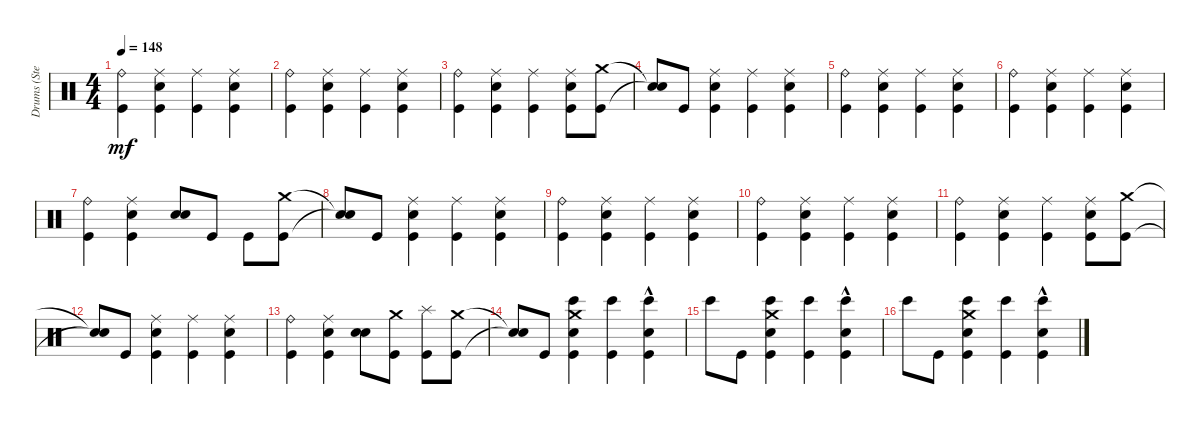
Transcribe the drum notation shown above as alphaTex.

\track ("Drums (Steven)" "Drums (Ste") {instrument percussion}
\staff {score}
\articulation defaults
\ts (4 4)
\tempo 148
\clef neutral
\ks c
("Kick (hit)" "Ride (bell)").4{dy mf} ("Kick (hit)" "Snare (hit) 2" "Ride (middle)").4 ("Kick (hit)" "Ride (middle)").4 ("Kick (hit)" "Snare (hit) 2" "Ride (middle)").4 |
("Kick (hit)" "Ride (bell)").4 ("Kick (hit)" "Snare (hit) 2" "Ride (middle)").4 ("Kick (hit)" "Ride (middle)").4 ("Kick (hit)" "Snare (hit) 2" "Ride (middle)").4 |
("Kick (hit)" "Ride (bell)").4 ("Kick (hit)" "Snare (hit) 2" "Ride (middle)").4 ("Kick (hit)" "Ride (middle)").4 ("Kick (hit)" "Snare (hit) 2" "Ride (middle)").8 ("Kick (hit)" "Crash medium (hit)").8 |
("Snare (hit)"{t} "Snare (hit)"{t}).8 "Kick (hit)".8 ("Kick (hit)" "Snare (hit) 2" "Ride (middle)").4 ("Kick (hit)" "Ride (middle)").4 ("Kick (hit)" "Snare (hit) 2" "Ride (middle)").4 |
("Kick (hit)" "Ride (bell)").4 ("Kick (hit)" "Snare (hit) 2" "Ride (middle)").4 ("Kick (hit)" "Ride (middle)").4 ("Kick (hit)" "Snare (hit) 2" "Ride (middle)").4 |
("Kick (hit)" "Ride (bell)").4 ("Kick (hit)" "Snare (hit) 2" "Ride (middle)").4 ("Kick (hit)" "Ride (middle)").4 ("Kick (hit)" "Snare (hit) 2" "Ride (middle)").4 |
("Kick (hit)" "Ride (bell)").4 ("Kick (hit)" "Snare (hit) 2" "Ride (middle)").4 ("Snare (hit) 2" "Snare (hit) 2").8 "Kick (hit)".8 "Kick (hit)".8 ("Kick (hit)" "Crash medium (hit)").8 |
("Snare (hit)"{t} "Snare (hit)"{t}).8 "Kick (hit)".8 ("Kick (hit)" "Snare (hit) 2" "Ride (middle)").4 ("Kick (hit)" "Ride (middle)").4 ("Kick (hit)" "Snare (hit) 2" "Ride (middle)").4 |
("Kick (hit)" "Ride (bell)").4 ("Kick (hit)" "Snare (hit) 2" "Ride (middle)").4 ("Kick (hit)" "Ride (middle)").4 ("Kick (hit)" "Snare (hit) 2" "Ride (middle)").4 |
("Kick (hit)" "Ride (bell)").4 ("Kick (hit)" "Snare (hit) 2" "Ride (middle)").4 ("Kick (hit)" "Ride (middle)").4 ("Kick (hit)" "Snare (hit) 2" "Ride (middle)").4 |
("Kick (hit)" "Ride (bell)").4 ("Kick (hit)" "Snare (hit) 2" "Ride (middle)").4 ("Kick (hit)" "Ride (middle)").4 ("Kick (hit)" "Snare (hit) 2" "Ride (middle)").8 ("Kick (hit)" "Crash medium (hit)").8 |
("Snare (hit)"{t} "Snare (hit)"{t}).8 "Kick (hit)".8 ("Kick (hit)" "Snare (hit) 2" "Ride (middle)").4 ("Kick (hit)" "Ride (middle)").4 ("Kick (hit)" "Snare (hit) 2" "Ride (middle)").4 |
("Kick (hit)" "Ride (bell)").4 ("Kick (hit)" "Snare (hit) 2" "Ride (middle)").4 ("Snare (hit) 2" "Snare (hit) 2").8 ("Kick (hit)" "Crash medium (hit)").8 ("Kick (hit)" "Splash (hit)").8 ("Kick (hit)" "Crash medium (hit)").8 |
("Snare (hit)"{t} "Snare (hit)"{t}).8 "Kick (hit)".8 ("Kick (hit)" "Snare (hit) 2" "Crash medium (hit)" "Bongo High (hit)").4 ("Kick (hit)" "Bongo High (hit)").4 ("Kick (hit)"{hac} "Snare (hit) 2" "Bongo High (hit)").4 |
"Bongo High (hit)".8 "Kick (hit)".8 ("Kick (hit)" "Snare (hit) 2" "Crash medium (hit)" "Bongo High (hit)").4 ("Kick (hit)" "Bongo High (hit)").4 ("Kick (hit)"{hac} "Snare (hit) 2" "Bongo High (hit)").4 |
"Bongo High (hit)".8 "Kick (hit)".8 ("Kick (hit)" "Snare (hit) 2" "Crash medium (hit)" "Bongo High (hit)").4 ("Kick (hit)" "Bongo High (hit)").4 ("Kick (hit)"{hac} "Snare (hit) 2" "Bongo High (hit)").4
